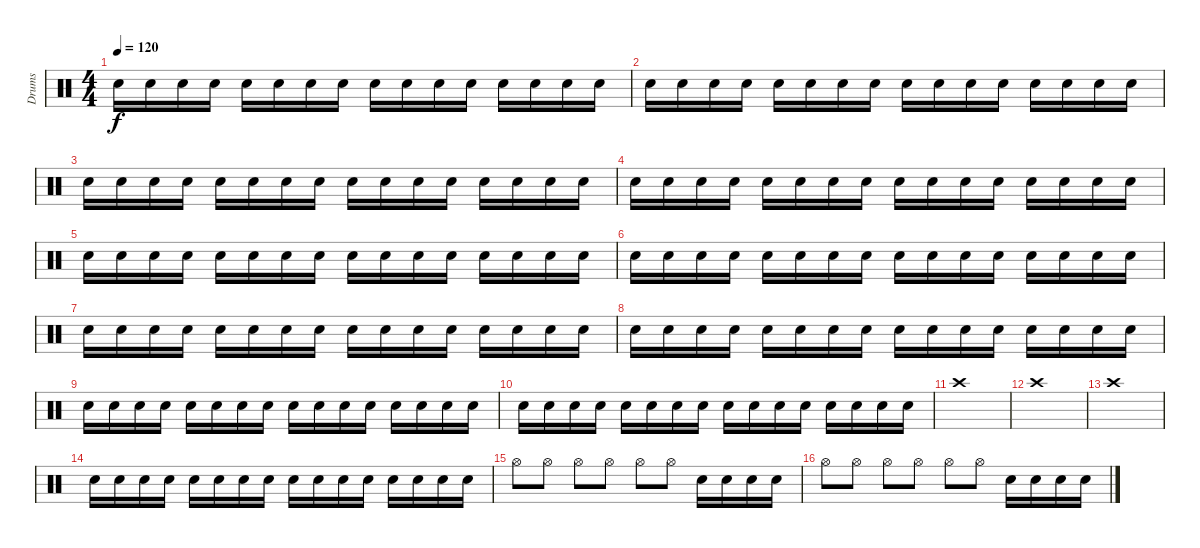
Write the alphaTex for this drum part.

\track ("Drums" "Drums") {instrument percussion}
\staff {score}
\articulation defaults
\ts (4 4)
\tempo 120
\clef neutral
\ks c "Electric Snare (hit)".16{dy f} "Electric Snare (hit)".16 "Electric Snare (hit)".16 "Electric Snare (hit)".16 "Electric Snare (hit)".16 "Electric Snare (hit)".16 "Electric Snare (hit)".16 "Electric Snare (hit)".16 "Electric Snare (hit)".16 "Electric Snare (hit)".16 "Electric Snare (hit)".16 "Electric Snare (hit)".16 "Electric Snare (hit)".16 "Electric Snare (hit)".16 "Electric Snare (hit)".16 "Electric Snare (hit)".16
|
"Electric Snare (hit)".16 "Electric Snare (hit)".16 "Electric Snare (hit)".16 "Electric Snare (hit)".16 "Electric Snare (hit)".16 "Electric Snare (hit)".16 "Electric Snare (hit)".16 "Electric Snare (hit)".16 "Electric Snare (hit)".16 "Electric Snare (hit)".16 "Electric Snare (hit)".16 "Electric Snare (hit)".16 "Electric Snare (hit)".16 "Electric Snare (hit)".16 "Electric Snare (hit)".16 "Electric Snare (hit)".16 |
"Electric Snare (hit)".16 "Electric Snare (hit)".16 "Electric Snare (hit)".16 "Electric Snare (hit)".16 "Electric Snare (hit)".16 "Electric Snare (hit)".16 "Electric Snare (hit)".16 "Electric Snare (hit)".16 "Electric Snare (hit)".16 "Electric Snare (hit)".16 "Electric Snare (hit)".16 "Electric Snare (hit)".16 "Electric Snare (hit)".16 "Electric Snare (hit)".16 "Electric Snare (hit)".16 "Electric Snare (hit)".16 |
"Electric Snare (hit)".16 "Electric Snare (hit)".16 "Electric Snare (hit)".16 "Electric Snare (hit)".16 "Electric Snare (hit)".16 "Electric Snare (hit)".16 "Electric Snare (hit)".16 "Electric Snare (hit)".16 "Electric Snare (hit)".16 "Electric Snare (hit)".16 "Electric Snare (hit)".16 "Electric Snare (hit)".16 "Electric Snare (hit)".16 "Electric Snare (hit)".16 "Electric Snare (hit)".16 "Electric Snare (hit)".16 |
"Electric Snare (hit)".16 "Electric Snare (hit)".16 "Electric Snare (hit)".16 "Electric Snare (hit)".16 "Electric Snare (hit)".16 "Electric Snare (hit)".16 "Electric Snare (hit)".16 "Electric Snare (hit)".16 "Electric Snare (hit)".16 "Electric Snare (hit)".16 "Electric Snare (hit)".16 "Electric Snare (hit)".16 "Electric Snare (hit)".16 "Electric Snare (hit)".16 "Electric Snare (hit)".16 "Electric Snare (hit)".16 |
"Electric Snare (hit)".16 "Electric Snare (hit)".16 "Electric Snare (hit)".16 "Electric Snare (hit)".16 "Electric Snare (hit)".16 "Electric Snare (hit)".16 "Electric Snare (hit)".16 "Electric Snare (hit)".16 "Electric Snare (hit)".16 "Electric Snare (hit)".16 "Electric Snare (hit)".16 "Electric Snare (hit)".16 "Electric Snare (hit)".16 "Electric Snare (hit)".16 "Electric Snare (hit)".16 "Electric Snare (hit)".16 |
"Electric Snare (hit)".16 "Electric Snare (hit)".16 "Electric Snare (hit)".16 "Electric Snare (hit)".16 "Electric Snare (hit)".16 "Electric Snare (hit)".16 "Electric Snare (hit)".16 "Electric Snare (hit)".16 "Electric Snare (hit)".16 "Electric Snare (hit)".16 "Electric Snare (hit)".16 "Electric Snare (hit)".16 "Electric Snare (hit)".16 "Electric Snare (hit)".16 "Electric Snare (hit)".16 "Electric Snare (hit)".16 |
"Electric Snare (hit)".16 "Electric Snare (hit)".16 "Electric Snare (hit)".16 "Electric Snare (hit)".16 "Electric Snare (hit)".16 "Electric Snare (hit)".16 "Electric Snare (hit)".16 "Electric Snare (hit)".16 "Electric Snare (hit)".16 "Electric Snare (hit)".16 "Electric Snare (hit)".16 "Electric Snare (hit)".16 "Electric Snare (hit)".16 "Electric Snare (hit)".16 "Electric Snare (hit)".16 "Electric Snare (hit)".16 |
"Electric Snare (hit)".16 "Electric Snare (hit)".16 "Electric Snare (hit)".16 "Electric Snare (hit)".16 "Electric Snare (hit)".16 "Electric Snare (hit)".16 "Electric Snare (hit)".16 "Electric Snare (hit)".16 "Electric Snare (hit)".16 "Electric Snare (hit)".16 "Electric Snare (hit)".16 "Electric Snare (hit)".16 "Electric Snare (hit)".16 "Electric Snare (hit)".16 "Electric Snare (hit)".16 "Electric Snare (hit)".16 |
"Electric Snare (hit)".16 "Electric Snare (hit)".16 "Electric Snare (hit)".16 "Electric Snare (hit)".16 "Electric Snare (hit)".16 "Electric Snare (hit)".16 "Electric Snare (hit)".16 "Electric Snare (hit)".16 "Electric Snare (hit)".16 "Electric Snare (hit)".16 "Electric Snare (hit)".16 "Electric Snare (hit)".16 "Electric Snare (hit)".16 "Electric Snare (hit)".16 "Electric Snare (hit)".16 "Electric Snare (hit)".16 |
"Crash high (hit)".1 |
"Crash high (hit)".1 |
"Crash high (hit)".1 |
"Electric Snare (hit)".16 "Electric Snare (hit)".16 "Electric Snare (hit)".16 "Electric Snare (hit)".16 "Electric Snare (hit)".16 "Electric Snare (hit)".16 "Electric Snare (hit)".16 "Electric Snare (hit)".16 "Electric Snare (hit)".16 "Electric Snare (hit)".16 "Electric Snare (hit)".16 "Electric Snare (hit)".16 "Electric Snare (hit)".16 "Electric Snare (hit)".16 "Electric Snare (hit)".16 "Electric Snare (hit)".16 |
"Hi-Hat (open)".8 "Hi-Hat (open)".8 "Hi-Hat (open)".8 "Hi-Hat (open)".8 "Hi-Hat (open)".8 "Hi-Hat (open)".8 "Electric Snare (hit)".16 "Electric Snare (hit)".16 "Electric Snare (hit)".16 "Electric Snare (hit)".16 |
"Hi-Hat (open)".8 "Hi-Hat (open)".8 "Hi-Hat (open)".8 "Hi-Hat (open)".8 "Hi-Hat (open)".8 "Hi-Hat (open)".8 "Electric Snare (hit)".16 "Electric Snare (hit)".16 "Electric Snare (hit)".16 "Electric Snare (hit)".16
